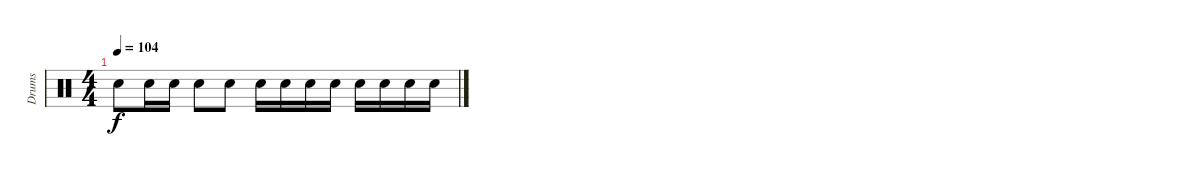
\track ("Drums" "Drums") {instrument percussion}
\staff {score}
\articulation defaults
\ts (4 4)
\tempo 104
\clef neutral
\ks c "Snare (hit) 2".8{dy f} "Snare (hit) 2".16 "Snare (hit) 2".16 "Snare (hit) 2".8 "Snare (hit) 2".8 "Snare (hit) 2".16 "Snare (hit) 2".16 "Snare (hit) 2".16 "Snare (hit) 2".16 "Snare (hit) 2".16 "Snare (hit) 2".16 "Snare (hit) 2".16 "Snare (hit) 2".16
